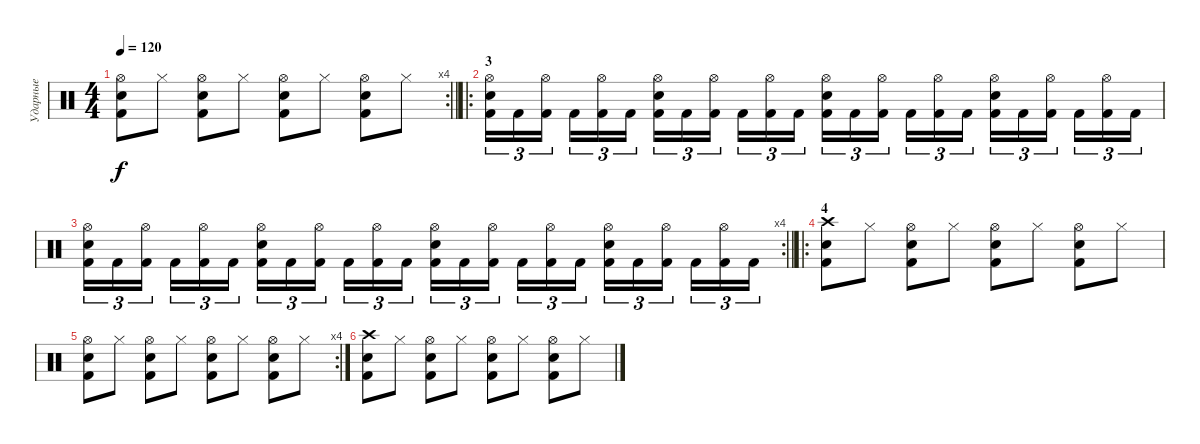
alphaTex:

\track ("Ударные" "Ударные") {instrument percussion}
\staff {score}
\articulation defaults
\rc 4
\ts (4 4)
\tempo 120
\clef neutral
\barLineRight lightlight
\ks c
("Hi-Hat (open)" "Snare (hit) 2" "Kick (hit) 2").8{dy f} "Hi-Hat (closed)".8 ("Hi-Hat (open)" "Snare (hit) 2" "Kick (hit) 2").8 "Hi-Hat (closed)".8 ("Hi-Hat (open)" "Snare (hit) 2" "Kick (hit) 2").8 "Hi-Hat (closed)".8 ("Hi-Hat (open)" "Snare (hit) 2" "Kick (hit) 2").8 "Hi-Hat (closed)".8 |
\ro
\section ("" "3")
("Hi-Hat (open)" "Electric Snare (hit)" "Kick (hit) 2").16{tu (3 2)} "Kick (hit) 2".16{tu (3 2)} ("Hi-Hat (open)" "Kick (hit) 2").16{tu (3 2) beam splitsecondary} "Kick (hit) 2".16{tu (3 2)} ("Hi-Hat (open)" "Kick (hit) 2").16{tu (3 2)} "Kick (hit) 2".16{tu (3 2)} ("Hi-Hat (open)" "Electric Snare (hit)" "Kick (hit) 2").16{tu (3 2)} "Kick (hit) 2".16{tu (3 2)} ("Hi-Hat (open)" "Kick (hit) 2").16{tu (3 2) beam splitsecondary} "Kick (hit) 2".16{tu (3 2)} ("Hi-Hat (open)" "Kick (hit) 2").16{tu (3 2)} "Kick (hit) 2".16{tu (3 2)} ("Hi-Hat (open)" "Electric Snare (hit)" "Kick (hit) 2").16{tu (3 2)} "Kick (hit) 2".16{tu (3 2)} ("Hi-Hat (open)" "Kick (hit) 2").16{tu (3 2) beam splitsecondary} "Kick (hit) 2".16{tu (3 2)} ("Hi-Hat (open)" "Kick (hit) 2").16{tu (3 2)} "Kick (hit) 2".16{tu (3 2)} ("Hi-Hat (open)" "Electric Snare (hit)" "Kick (hit) 2").16{tu (3 2)} "Kick (hit) 2".16{tu (3 2)} ("Hi-Hat (open)" "Kick (hit) 2").16{tu (3 2) beam splitsecondary} "Kick (hit) 2".16{tu (3 2)} ("Hi-Hat (open)" "Kick (hit) 2").16{tu (3 2)} "Kick (hit) 2".16{tu (3 2)} |
\rc 4
\barLineRight lightlight
("Hi-Hat (open)" "Electric Snare (hit)" "Kick (hit) 2").16{tu (3 2)} "Kick (hit) 2".16{tu (3 2)} ("Hi-Hat (open)" "Kick (hit) 2").16{tu (3 2) beam splitsecondary} "Kick (hit) 2".16{tu (3 2)} ("Hi-Hat (open)" "Kick (hit) 2").16{tu (3 2)} "Kick (hit) 2".16{tu (3 2)} ("Hi-Hat (open)" "Electric Snare (hit)" "Kick (hit) 2").16{tu (3 2)} "Kick (hit) 2".16{tu (3 2)} ("Hi-Hat (open)" "Kick (hit) 2").16{tu (3 2) beam splitsecondary} "Kick (hit) 2".16{tu (3 2)} ("Hi-Hat (open)" "Kick (hit) 2").16{tu (3 2)} "Kick (hit) 2".16{tu (3 2)} ("Hi-Hat (open)" "Electric Snare (hit)" "Kick (hit) 2").16{tu (3 2)} "Kick (hit) 2".16{tu (3 2)} ("Hi-Hat (open)" "Kick (hit) 2").16{tu (3 2) beam splitsecondary} "Kick (hit) 2".16{tu (3 2)} ("Hi-Hat (open)" "Kick (hit) 2").16{tu (3 2)} "Kick (hit) 2".16{tu (3 2)} ("Hi-Hat (open)" "Electric Snare (hit)" "Kick (hit) 2").16{tu (3 2)} "Kick (hit) 2".16{tu (3 2)} ("Hi-Hat (open)" "Kick (hit) 2").16{tu (3 2) beam splitsecondary} "Kick (hit) 2".16{tu (3 2)} ("Hi-Hat (open)" "Kick (hit) 2").16{tu (3 2)} "Kick (hit) 2".16{tu (3 2)} |
\ro
\section ("" "4")
("Crash high (hit)" "Snare (hit) 2" "Kick (hit) 2").8 "Hi-Hat (closed)".8 ("Hi-Hat (open)" "Snare (hit) 2" "Kick (hit) 2").8 "Hi-Hat (closed)".8 ("Hi-Hat (open)" "Snare (hit) 2" "Kick (hit) 2").8 "Hi-Hat (closed)".8 ("Hi-Hat (open)" "Snare (hit) 2" "Kick (hit) 2").8 "Hi-Hat (closed)".8 |
\rc 4
("Hi-Hat (open)" "Snare (hit) 2" "Kick (hit) 2").8 "Hi-Hat (closed)".8 ("Hi-Hat (open)" "Snare (hit) 2" "Kick (hit) 2").8 "Hi-Hat (closed)".8 ("Hi-Hat (open)" "Snare (hit) 2" "Kick (hit) 2").8 "Hi-Hat (closed)".8 ("Hi-Hat (open)" "Snare (hit) 2" "Kick (hit) 2").8 "Hi-Hat (closed)".8 |
("Crash high (hit)" "Snare (hit) 2" "Kick (hit) 2").8 "Hi-Hat (closed)".8 ("Hi-Hat (open)" "Snare (hit) 2" "Kick (hit) 2").8 "Hi-Hat (closed)".8 ("Hi-Hat (open)" "Snare (hit) 2" "Kick (hit) 2").8 "Hi-Hat (closed)".8 ("Hi-Hat (open)" "Snare (hit) 2" "Kick (hit) 2").8 "Hi-Hat (closed)".8
